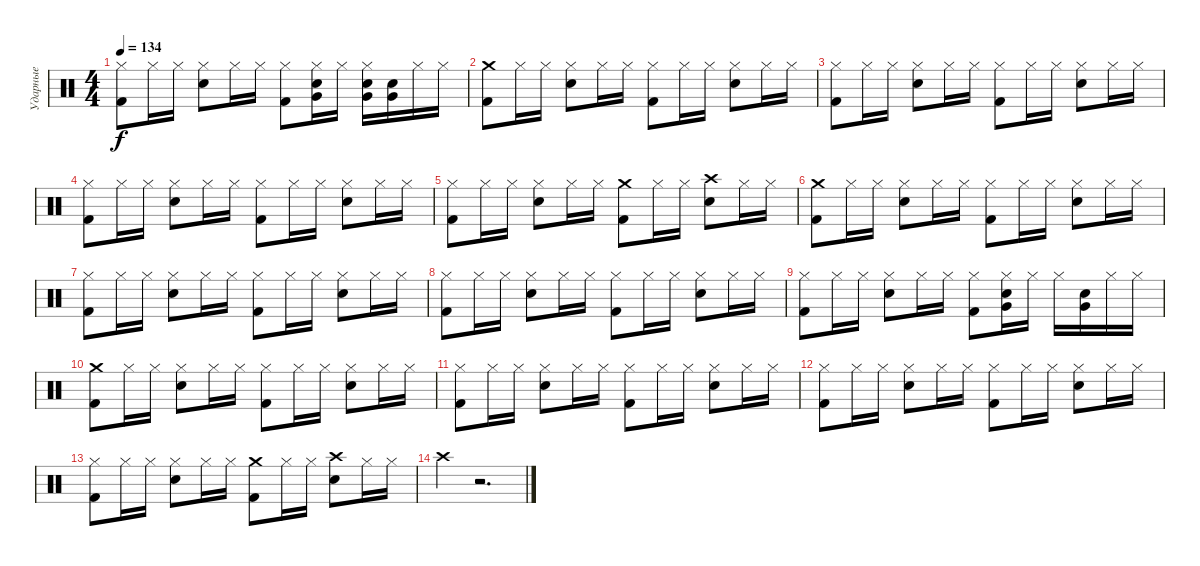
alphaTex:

\track ("Ударные" "Ударные") {instrument percussion}
\staff {score}
\articulation defaults
\ts (4 4)
\tempo 134
\clef neutral
\ks c
("Hi-Hat (closed)" "Kick (hit) 2").8{dy f} "Hi-Hat (closed)".16 "Hi-Hat (closed)".16 ("Hi-Hat (closed)" "Snare (hit) 2").8 "Hi-Hat (closed)".16 "Hi-Hat (closed)".16 ("Hi-Hat (closed)" "Kick (hit) 2").8 ("Hi-Hat (closed)" "Snare (hit) 2" "Very Low Tom (hit)").16 "Hi-Hat (closed)".16 ("Hi-Hat (closed)" "Snare (hit) 2" "Very Low Tom (hit)").16 ("Snare (hit) 2" "Very Low Tom (hit)").16 "Hi-Hat (closed)".16 "Hi-Hat (closed)".16 |
("Crash medium (hit)" "Kick (hit) 2").8 "Hi-Hat (closed)".16 "Hi-Hat (closed)".16 ("Hi-Hat (closed)" "Snare (hit) 2").8 "Hi-Hat (closed)".16 "Hi-Hat (closed)".16 ("Hi-Hat (closed)" "Kick (hit) 2").8 "Hi-Hat (closed)".16 "Hi-Hat (closed)".16 ("Hi-Hat (closed)" "Snare (hit) 2").8 "Hi-Hat (closed)".16 "Hi-Hat (closed)".16 |
("Hi-Hat (closed)" "Kick (hit) 2").8 "Hi-Hat (closed)".16 "Hi-Hat (closed)".16 ("Hi-Hat (closed)" "Snare (hit) 2").8 "Hi-Hat (closed)".16 "Hi-Hat (closed)".16 ("Hi-Hat (closed)" "Kick (hit) 2").8 "Hi-Hat (closed)".16 "Hi-Hat (closed)".16 ("Hi-Hat (closed)" "Snare (hit) 2").8 "Hi-Hat (closed)".16 "Hi-Hat (closed)".16 |
("Hi-Hat (closed)" "Kick (hit) 2").8 "Hi-Hat (closed)".16 "Hi-Hat (closed)".16 ("Hi-Hat (closed)" "Snare (hit) 2").8 "Hi-Hat (closed)".16 "Hi-Hat (closed)".16 ("Hi-Hat (closed)" "Kick (hit) 2").8 "Hi-Hat (closed)".16 "Hi-Hat (closed)".16 ("Hi-Hat (closed)" "Snare (hit) 2").8 "Hi-Hat (closed)".16 "Hi-Hat (closed)".16 |
("Hi-Hat (closed)" "Kick (hit) 2").8 "Hi-Hat (closed)".16 "Hi-Hat (closed)".16 ("Hi-Hat (closed)" "Snare (hit) 2").8 "Hi-Hat (closed)".16 "Hi-Hat (closed)".16 ("Crash medium (hit)" "Kick (hit) 2").8 "Hi-Hat (closed)".16 "Hi-Hat (closed)".16 ("Crash high (hit)" "Snare (hit) 2").8 "Hi-Hat (closed)".16 "Hi-Hat (closed)".16 |
("Crash medium (hit)" "Kick (hit) 2").8 "Hi-Hat (closed)".16 "Hi-Hat (closed)".16 ("Hi-Hat (closed)" "Snare (hit) 2").8 "Hi-Hat (closed)".16 "Hi-Hat (closed)".16 ("Hi-Hat (closed)" "Kick (hit) 2").8 "Hi-Hat (closed)".16 "Hi-Hat (closed)".16 ("Hi-Hat (closed)" "Snare (hit) 2").8 "Hi-Hat (closed)".16 "Hi-Hat (closed)".16 |
("Hi-Hat (closed)" "Kick (hit) 2").8 "Hi-Hat (closed)".16 "Hi-Hat (closed)".16 ("Hi-Hat (closed)" "Snare (hit) 2").8 "Hi-Hat (closed)".16 "Hi-Hat (closed)".16 ("Hi-Hat (closed)" "Kick (hit) 2").8 "Hi-Hat (closed)".16 "Hi-Hat (closed)".16 ("Hi-Hat (closed)" "Snare (hit) 2").8 "Hi-Hat (closed)".16 "Hi-Hat (closed)".16 |
("Hi-Hat (closed)" "Kick (hit) 2").8 "Hi-Hat (closed)".16 "Hi-Hat (closed)".16 ("Hi-Hat (closed)" "Snare (hit) 2").8 "Hi-Hat (closed)".16 "Hi-Hat (closed)".16 ("Hi-Hat (closed)" "Kick (hit) 2").8 "Hi-Hat (closed)".16 "Hi-Hat (closed)".16 ("Hi-Hat (closed)" "Snare (hit) 2").8 "Hi-Hat (closed)".16 "Hi-Hat (closed)".16 |
("Hi-Hat (closed)" "Kick (hit) 2").8 "Hi-Hat (closed)".16 "Hi-Hat (closed)".16 ("Hi-Hat (closed)" "Snare (hit) 2").8 "Hi-Hat (closed)".16 "Hi-Hat (closed)".16 ("Hi-Hat (closed)" "Kick (hit) 2").8 ("Hi-Hat (closed)" "Snare (hit) 2" "Very Low Tom (hit)").16 "Hi-Hat (closed)".16 "Hi-Hat (closed)".16 ("Snare (hit) 2" "Very Low Tom (hit)").16 "Hi-Hat (closed)".16 "Hi-Hat (closed)".16 |
("Crash medium (hit)" "Kick (hit) 2").8 "Hi-Hat (closed)".16 "Hi-Hat (closed)".16 ("Hi-Hat (closed)" "Snare (hit) 2").8 "Hi-Hat (closed)".16 "Hi-Hat (closed)".16 ("Hi-Hat (closed)" "Kick (hit) 2").8 "Hi-Hat (closed)".16 "Hi-Hat (closed)".16 ("Hi-Hat (closed)" "Snare (hit) 2").8 "Hi-Hat (closed)".16 "Hi-Hat (closed)".16 |
("Hi-Hat (closed)" "Kick (hit) 2").8 "Hi-Hat (closed)".16 "Hi-Hat (closed)".16 ("Hi-Hat (closed)" "Snare (hit) 2").8 "Hi-Hat (closed)".16 "Hi-Hat (closed)".16 ("Hi-Hat (closed)" "Kick (hit) 2").8 "Hi-Hat (closed)".16 "Hi-Hat (closed)".16 ("Hi-Hat (closed)" "Snare (hit) 2").8 "Hi-Hat (closed)".16 "Hi-Hat (closed)".16 |
("Hi-Hat (closed)" "Kick (hit) 2").8 "Hi-Hat (closed)".16 "Hi-Hat (closed)".16 ("Hi-Hat (closed)" "Snare (hit) 2").8 "Hi-Hat (closed)".16 "Hi-Hat (closed)".16 ("Hi-Hat (closed)" "Kick (hit) 2").8 "Hi-Hat (closed)".16 "Hi-Hat (closed)".16 ("Hi-Hat (closed)" "Snare (hit) 2").8 "Hi-Hat (closed)".16 "Hi-Hat (closed)".16 |
("Hi-Hat (closed)" "Kick (hit) 2").8 "Hi-Hat (closed)".16 "Hi-Hat (closed)".16 ("Hi-Hat (closed)" "Snare (hit) 2").8 "Hi-Hat (closed)".16 "Hi-Hat (closed)".16 ("Crash medium (hit)" "Kick (hit) 2").8 "Hi-Hat (closed)".16 "Hi-Hat (closed)".16 ("Crash high (hit)" "Snare (hit) 2").8 "Hi-Hat (closed)".16 "Hi-Hat (closed)".16 |
"Crash high (hit)".4 r.2{d}
